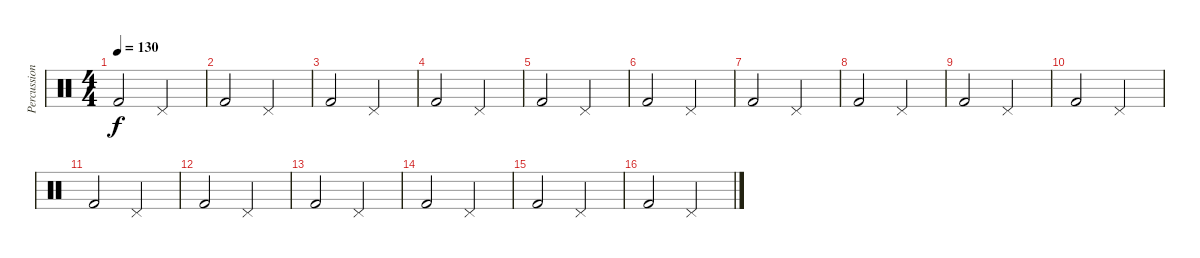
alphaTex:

\track ("Percussion" "Percussion") {instrument percussion}
\staff {score}
\articulation defaults
\ts (4 4)
\tempo 130
\clef neutral
\ks c "Kick (hit) 2".2{dy f} "Pedal Hi-Hat (hit)".2
|
"Kick (hit) 2".2 "Pedal Hi-Hat (hit)".2 |
"Kick (hit) 2".2 "Pedal Hi-Hat (hit)".2 |
"Kick (hit) 2".2 "Pedal Hi-Hat (hit)".2 |
"Kick (hit) 2".2 "Pedal Hi-Hat (hit)".2 |
"Kick (hit) 2".2 "Pedal Hi-Hat (hit)".2 |
"Kick (hit) 2".2 "Pedal Hi-Hat (hit)".2 |
"Kick (hit) 2".2 "Pedal Hi-Hat (hit)".2 |
"Kick (hit) 2".2 "Pedal Hi-Hat (hit)".2 |
"Kick (hit) 2".2 "Pedal Hi-Hat (hit)".2 |
"Kick (hit) 2".2 "Pedal Hi-Hat (hit)".2 |
"Kick (hit) 2".2 "Pedal Hi-Hat (hit)".2 |
"Kick (hit) 2".2 "Pedal Hi-Hat (hit)".2 |
"Kick (hit) 2".2 "Pedal Hi-Hat (hit)".2 |
"Kick (hit) 2".2 "Pedal Hi-Hat (hit)".2 |
"Kick (hit) 2".2 "Pedal Hi-Hat (hit)".2
